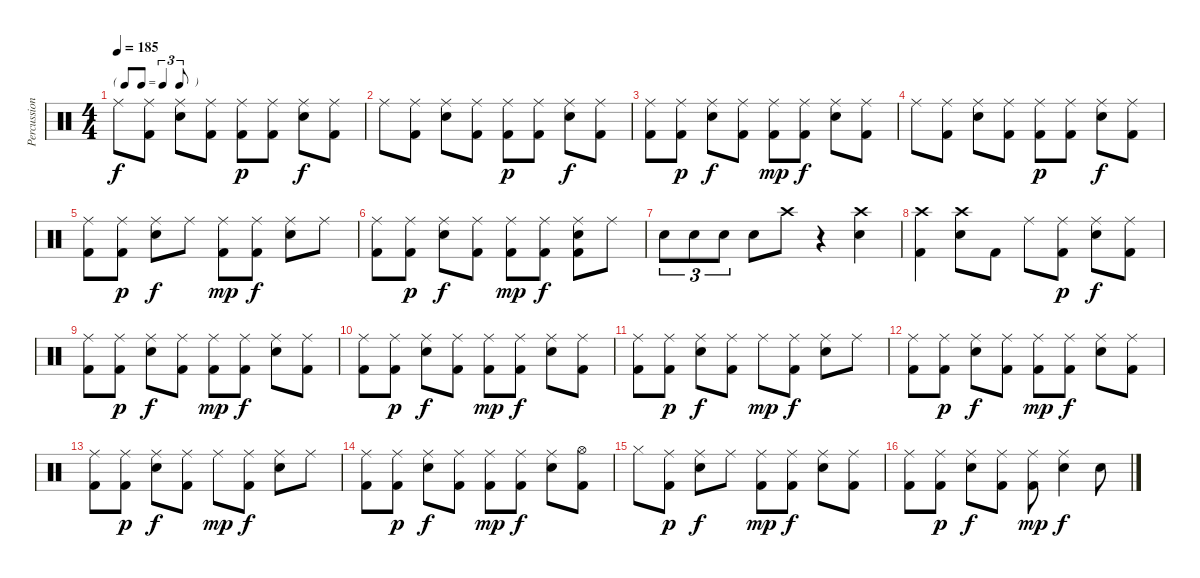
\track ("Percussion" "Percussion") {instrument percussion}
\staff {score}
\articulation defaults
\ts (4 4)
\tf triplet8th
\tempo 185
\clef neutral
\ks c "Ride (middle)".8{dy f}
("Kick (hit) 2" "Ride (middle)").8 ("Snare (hit) 2" "Ride (middle)").8 ("Kick (hit) 2" "Ride (middle)").8 ("Kick (hit) 2" "Ride (middle)").8{dy p} ("Kick (hit) 2" "Ride (middle)").8 ("Snare (hit) 2" "Ride (middle)").8{dy f} ("Kick (hit) 2" "Ride (middle)").8 |
"Ride (middle)".8 ("Kick (hit) 2" "Ride (middle)").8 ("Snare (hit) 2" "Ride (middle)").8 ("Kick (hit) 2" "Ride (middle)").8 ("Kick (hit) 2" "Ride (middle)").8{dy p} ("Kick (hit) 2" "Ride (middle)").8 ("Snare (hit) 2" "Ride (middle)").8{dy f} ("Kick (hit) 2" "Ride (middle)").8 |
("Kick (hit) 2" "Ride (middle)").8 ("Kick (hit) 2" "Ride (middle)").8{dy p} ("Snare (hit) 2" "Ride (middle)").8{dy f} ("Kick (hit) 2" "Ride (middle)").8 ("Kick (hit) 2" "Ride (middle)").8{dy mp} ("Kick (hit) 2" "Ride (middle)").8{dy f} ("Snare (hit) 2" "Ride (middle)").8 ("Kick (hit) 2" "Ride (middle)").8 |
"Ride (middle)".8 ("Kick (hit) 2" "Ride (middle)").8 ("Snare (hit) 2" "Ride (middle)").8 ("Kick (hit) 2" "Ride (middle)").8 ("Kick (hit) 2" "Ride (middle)").8{dy p} ("Kick (hit) 2" "Ride (middle)").8 ("Snare (hit) 2" "Ride (middle)").8{dy f} ("Kick (hit) 2" "Ride (middle)").8 |
("Kick (hit) 2" "Ride (middle)").8 ("Kick (hit) 2" "Ride (middle)").8{dy p} ("Snare (hit) 2" "Ride (middle)").8{dy f} "Ride (middle)".8 ("Kick (hit) 2" "Ride (middle)").8{dy mp} ("Kick (hit) 2" "Ride (middle)").8{dy f} ("Snare (hit) 2" "Ride (middle)").8 "Ride (middle)".8 |
("Kick (hit) 2" "Ride (middle)").8 ("Kick (hit) 2" "Ride (middle)").8{dy p} ("Snare (hit) 2" "Ride (middle)").8{dy f} ("Kick (hit) 2" "Ride (middle)").8 ("Kick (hit) 2" "Ride (middle)").8{dy mp} ("Kick (hit) 2" "Ride (middle)").8{dy f} ("Snare (hit) 2" "Kick (hit) 2" "Ride (middle)").8 "Ride (middle)".8 |
"Snare (hit) 2".8{tu (3 2)} "Snare (hit) 2".8{tu (3 2)} "Snare (hit) 2".8{tu (3 2)} "Snare (hit) 2".8 "Crash high (hit)".8 r.4 ("Snare (hit) 2" "Crash high (hit)").4 |
("Kick (hit) 2" "Crash high (hit)").4 ("Snare (hit) 2" "Crash high (hit)").8 "Kick (hit) 2".8 "Ride (middle)".8 ("Kick (hit) 2" "Ride (middle)").8{dy p} ("Snare (hit) 2" "Ride (middle)").8{dy f} ("Kick (hit) 2" "Ride (middle)").8 |
("Kick (hit) 2" "Ride (middle)").8 ("Kick (hit) 2" "Ride (middle)").8{dy p} ("Snare (hit) 2" "Ride (middle)").8{dy f} ("Kick (hit) 2" "Ride (middle)").8 ("Kick (hit) 2" "Ride (middle)").8{dy mp} ("Kick (hit) 2" "Ride (middle)").8{dy f} ("Snare (hit) 2" "Ride (middle)").8 ("Kick (hit) 2" "Ride (middle)").8 |
("Kick (hit) 2" "Ride (middle)").8 ("Kick (hit) 2" "Ride (middle)").8{dy p} ("Snare (hit) 2" "Ride (middle)").8{dy f} ("Kick (hit) 2" "Ride (middle)").8 ("Kick (hit) 2" "Ride (middle)").8{dy mp} ("Kick (hit) 2" "Ride (middle)").8{dy f} ("Snare (hit) 2" "Ride (middle)").8 ("Kick (hit) 2" "Ride (middle)").8 |
("Kick (hit) 2" "Ride (middle)").8 ("Kick (hit) 2" "Ride (middle)").8{dy p} ("Snare (hit) 2" "Ride (middle)").8{dy f} ("Kick (hit) 2" "Ride (middle)").8 "Ride (middle)".8{dy mp} ("Kick (hit) 2" "Ride (middle)").8{dy f} ("Snare (hit) 2" "Ride (middle)").8 "Ride (middle)".8 |
("Kick (hit) 2" "Ride (middle)").8 ("Kick (hit) 2" "Ride (middle)").8{dy p} ("Snare (hit) 2" "Ride (middle)").8{dy f} ("Kick (hit) 2" "Ride (middle)").8 ("Kick (hit) 2" "Ride (middle)").8{dy mp} ("Kick (hit) 2" "Ride (middle)").8{dy f} ("Snare (hit) 2" "Ride (middle)").8 ("Kick (hit) 2" "Ride (middle)").8 |
("Kick (hit) 2" "Ride (middle)").8 ("Kick (hit) 2" "Ride (middle)").8{dy p} ("Snare (hit) 2" "Ride (middle)").8{dy f} ("Kick (hit) 2" "Ride (middle)").8 "Ride (middle)".8{dy mp} ("Kick (hit) 2" "Ride (middle)").8{dy f} ("Snare (hit) 2" "Ride (middle)").8 "Ride (middle)".8 |
("Kick (hit) 2" "Ride (middle)").8 ("Kick (hit) 2" "Ride (middle)").8{dy p} ("Snare (hit) 2" "Ride (middle)").8{dy f} ("Kick (hit) 2" "Ride (middle)").8 ("Kick (hit) 2" "Ride (middle)").8{dy mp} ("Kick (hit) 2" "Ride (middle)").8{dy f} ("Snare (hit) 2" "Ride (middle)").8 ("Kick (hit) 2" "Hi-Hat (open)").8 |
"Hi-Hat (closed)".8 ("Kick (hit) 2" "Ride (middle)").8{dy p} ("Snare (hit) 2" "Ride (middle)").8{dy f} "Ride (middle)".8 ("Kick (hit) 2" "Ride (middle)").8{dy mp} ("Kick (hit) 2" "Ride (middle)").8{dy f} ("Snare (hit) 2" "Ride (middle)").8 ("Kick (hit) 2" "Ride (middle)").8 |
("Kick (hit) 2" "Ride (middle)").8 ("Kick (hit) 2" "Ride (middle)").8{dy p} ("Snare (hit) 2" "Ride (middle)").8{dy f} ("Kick (hit) 2" "Ride (middle)").8 ("Kick (hit) 2" "Ride (middle)").8{dy mp} ("Snare (hit) 2" "Ride (middle)").4{dy f} "Snare (hit) 2".8
